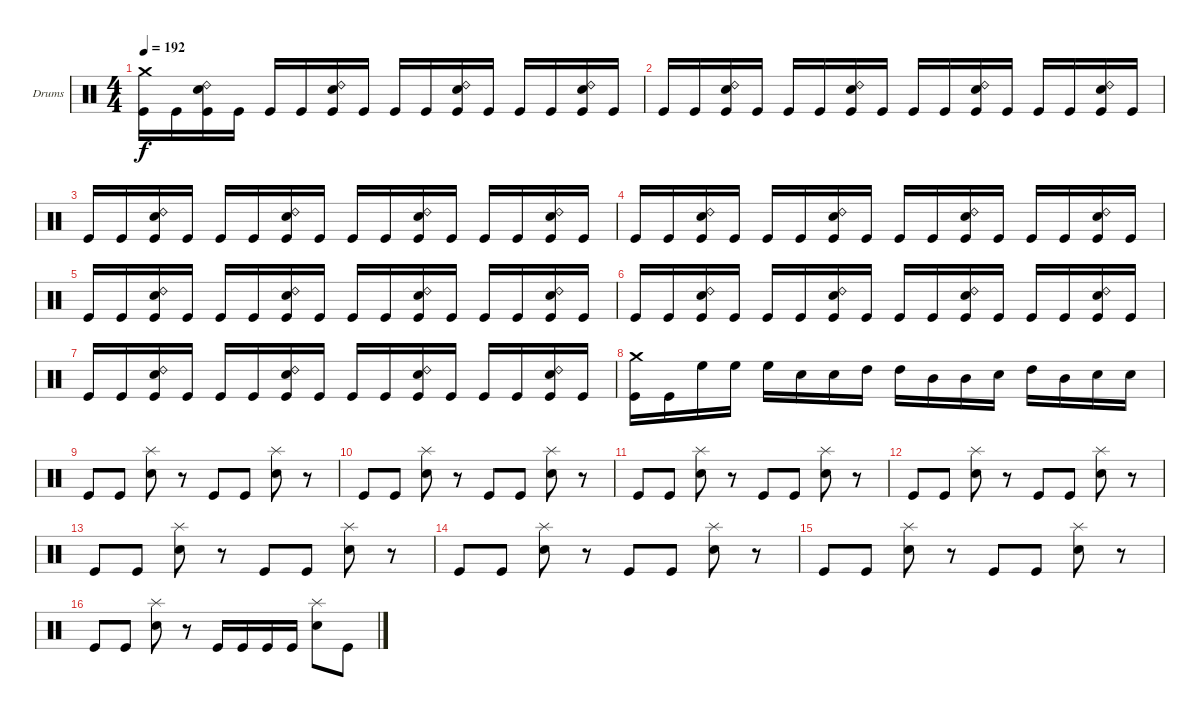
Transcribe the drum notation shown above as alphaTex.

\defaultSystemsLayout 4
\bracketExtendMode groupsimilarinstruments
\firstSystemTrackNameOrientation horizontal
\otherSystemsTrackNameOrientation horizontal
\track ("Drumkit" "Drums") {instrument percussion}
\staff {score}
\articulation defaults
\ts (4 4)
\tempo 192
\clef neutral
\scale
0.333333
\ks c
("Kick (hit)" "Crash medium (hit)").16{dy f} "Kick (hit)".16 ("Kick (hit)" "Snare (hit) 2" "Ride (bell) 2").16 "Kick (hit)".16 "Kick (hit)".16 "Kick (hit)".16 ("Kick (hit)" "Ride (bell) 2" "Snare (hit) 2").16 "Kick (hit)".16 "Kick (hit)".16 "Kick (hit)".16 ("Kick (hit)" "Ride (bell) 2" "Snare (hit) 2").16 "Kick (hit)".16 "Kick (hit)".16 "Kick (hit)".16 ("Kick (hit)" "Ride (bell) 2" "Snare (hit) 2").16 "Kick (hit)".16 |
"Kick (hit)".16 "Kick (hit)".16 ("Kick (hit)" "Snare (hit) 2" "Ride (bell) 2").16 "Kick (hit)".16 "Kick (hit)".16 "Kick (hit)".16 ("Kick (hit)" "Ride (bell) 2" "Snare (hit) 2").16 "Kick (hit)".16 "Kick (hit)".16 "Kick (hit)".16 ("Kick (hit)" "Ride (bell) 2" "Snare (hit) 2").16 "Kick (hit)".16 "Kick (hit)".16 "Kick (hit)".16 ("Kick (hit)" "Ride (bell) 2" "Snare (hit) 2").16 "Kick (hit)".16 |
"Kick (hit)".16 "Kick (hit)".16 ("Kick (hit)" "Snare (hit) 2" "Ride (bell) 2").16 "Kick (hit)".16 "Kick (hit)".16 "Kick (hit)".16 ("Kick (hit)" "Ride (bell) 2" "Snare (hit) 2").16 "Kick (hit)".16 "Kick (hit)".16 "Kick (hit)".16 ("Kick (hit)" "Ride (bell) 2" "Snare (hit) 2").16 "Kick (hit)".16 "Kick (hit)".16 "Kick (hit)".16 ("Kick (hit)" "Ride (bell) 2" "Snare (hit) 2").16 "Kick (hit)".16 |
"Kick (hit)".16 "Kick (hit)".16 ("Kick (hit)" "Snare (hit) 2" "Ride (bell) 2").16 "Kick (hit)".16 "Kick (hit)".16 "Kick (hit)".16 ("Kick (hit)" "Ride (bell) 2" "Snare (hit) 2").16 "Kick (hit)".16 "Kick (hit)".16 "Kick (hit)".16 ("Kick (hit)" "Ride (bell) 2" "Snare (hit) 2").16 "Kick (hit)".16 "Kick (hit)".16 "Kick (hit)".16 ("Kick (hit)" "Ride (bell) 2" "Snare (hit) 2").16 "Kick (hit)".16 |
"Kick (hit)".16 "Kick (hit)".16 ("Kick (hit)" "Snare (hit) 2" "Ride (bell) 2").16 "Kick (hit)".16 "Kick (hit)".16 "Kick (hit)".16 ("Kick (hit)" "Ride (bell) 2" "Snare (hit) 2").16 "Kick (hit)".16 "Kick (hit)".16 "Kick (hit)".16 ("Kick (hit)" "Ride (bell) 2" "Snare (hit) 2").16 "Kick (hit)".16 "Kick (hit)".16 "Kick (hit)".16 ("Kick (hit)" "Ride (bell) 2" "Snare (hit) 2").16 "Kick (hit)".16 |
"Kick (hit)".16 "Kick (hit)".16 ("Kick (hit)" "Snare (hit) 2" "Ride (bell) 2").16 "Kick (hit)".16 "Kick (hit)".16 "Kick (hit)".16 ("Kick (hit)" "Ride (bell) 2" "Snare (hit) 2").16 "Kick (hit)".16 "Kick (hit)".16 "Kick (hit)".16 ("Kick (hit)" "Ride (bell) 2" "Snare (hit) 2").16 "Kick (hit)".16 "Kick (hit)".16 "Kick (hit)".16 ("Kick (hit)" "Ride (bell) 2" "Snare (hit) 2").16 "Kick (hit)".16 |
"Kick (hit)".16 "Kick (hit)".16 ("Kick (hit)" "Snare (hit) 2" "Ride (bell) 2").16 "Kick (hit)".16 "Kick (hit)".16 "Kick (hit)".16 ("Kick (hit)" "Ride (bell) 2" "Snare (hit) 2").16 "Kick (hit)".16 "Kick (hit)".16 "Kick (hit)".16 ("Kick (hit)" "Ride (bell) 2" "Snare (hit) 2").16 "Kick (hit)".16 "Kick (hit)".16 "Kick (hit)".16 ("Kick (hit)" "Ride (bell) 2" "Snare (hit) 2").16 "Kick (hit)".16 |
("Crash medium (hit)" "Kick (hit)").16 "Kick (hit)".16 "High Floor Tom (hit)".16 "High Floor Tom (hit)".16 "High Floor Tom (hit)".16 "Snare (hit) 2".16 "Snare (hit) 2".16 "High Tom (hit)".16 "High Tom (hit)".16 "Mid Tom (hit)".16 "Mid Tom (hit)".16 "Snare (hit) 2".16 "High Tom (hit)".16 "Mid Tom (hit)".16 "Snare (hit) 2".16 "Snare (hit) 2".16 |
"Kick (hit)".8 "Kick (hit)".8 ("Snare (hit) 2" "Splash (hit)").8 r.8 "Kick (hit)".8 "Kick (hit)".8 ("Snare (hit) 2" "Splash (hit)").8 r.8 |
"Kick (hit)".8 "Kick (hit)".8 ("Snare (hit) 2" "Splash (hit)").8 r.8 "Kick (hit)".8 "Kick (hit)".8 ("Snare (hit) 2" "Splash (hit)").8 r.8 |
"Kick (hit)".8 "Kick (hit)".8 ("Snare (hit) 2" "Splash (hit)").8 r.8 "Kick (hit)".8 "Kick (hit)".8 ("Snare (hit) 2" "Splash (hit)").8 r.8 |
"Kick (hit)".8 "Kick (hit)".8 ("Snare (hit) 2" "Splash (hit)").8 r.8 "Kick (hit)".8 "Kick (hit)".8 ("Snare (hit) 2" "Splash (hit)").8 r.8 |
"Kick (hit)".8 "Kick (hit)".8 ("Snare (hit) 2" "Splash (hit)").8 r.8 "Kick (hit)".8 "Kick (hit)".8 ("Snare (hit) 2" "Splash (hit)").8 r.8 |
"Kick (hit)".8 "Kick (hit)".8 ("Snare (hit) 2" "Splash (hit)").8 r.8 "Kick (hit)".8 "Kick (hit)".8 ("Snare (hit) 2" "Splash (hit)").8 r.8 |
"Kick (hit)".8 "Kick (hit)".8 ("Snare (hit) 2" "Splash (hit)").8 r.8 "Kick (hit)".8 "Kick (hit)".8 ("Snare (hit) 2" "Splash (hit)").8 r.8 |
"Kick (hit)".8 "Kick (hit)".8 ("Snare (hit) 2" "Splash (hit)").8 r.8 "Kick (hit)".16 "Kick (hit)".16 "Kick (hit)".16 "Kick (hit)".16 ("Snare (hit) 2" "Splash (hit)").8 "Kick (hit)".8
